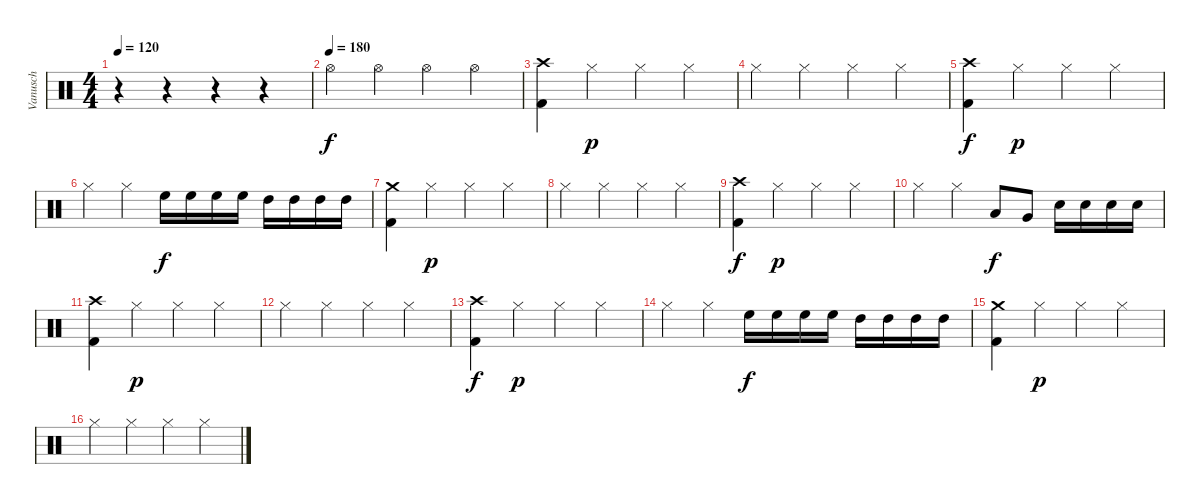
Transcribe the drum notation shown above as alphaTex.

\track ("Vanusch" "Vanusch") {instrument percussion}
\staff {score}
\articulation defaults
\ts (4 4)
\tempo 120
\clef neutral
\ks c
r.4{dy f} r.4 r.4 r.4 |
\tempo (180)
"Hi-Hat (open)".4 "Hi-Hat (open)".4 "Hi-Hat (open)".4 "Hi-Hat (open)".4 |
("Crash high (hit)" "Kick (hit) 2").4 "Hi-Hat (closed)".4{dy p} "Hi-Hat (closed)".4 "Hi-Hat (closed)".4 |
"Hi-Hat (closed)".4 "Hi-Hat (closed)".4 "Hi-Hat (closed)".4 "Hi-Hat (closed)".4 |
("Crash high (hit)" "Kick (hit) 2").4{dy f} "Hi-Hat (closed)".4{dy p} "Hi-Hat (closed)".4 "Hi-Hat (closed)".4 |
"Hi-Hat (closed)".4 "Hi-Hat (closed)".4 "High Floor Tom (hit)".16{dy f} "High Floor Tom (hit)".16 "High Floor Tom (hit)".16 "High Floor Tom (hit)".16 "High Tom (hit)".16 "High Tom (hit)".16 "High Tom (hit)".16 "High Tom (hit)".16 |
("Crash medium (hit)" "Kick (hit) 2").4 "Hi-Hat (closed)".4{dy p} "Hi-Hat (closed)".4 "Hi-Hat (closed)".4 |
"Hi-Hat (closed)".4 "Hi-Hat (closed)".4 "Hi-Hat (closed)".4 "Hi-Hat (closed)".4 |
("Crash high (hit)" "Kick (hit) 2").4{dy f} "Hi-Hat (closed)".4{dy p} "Hi-Hat (closed)".4 "Hi-Hat (closed)".4 |
"Hi-Hat (closed)".4 "Hi-Hat (closed)".4 "Low Tom (hit)".8{dy f} "Very Low Tom (hit)".8 "Snare (hit) 2".16 "Snare (hit) 2".16 "Snare (hit) 2".16 "Snare (hit) 2".16 |
("Crash high (hit)" "Kick (hit) 2").4 "Hi-Hat (closed)".4{dy p} "Hi-Hat (closed)".4 "Hi-Hat (closed)".4 |
"Hi-Hat (closed)".4 "Hi-Hat (closed)".4 "Hi-Hat (closed)".4 "Hi-Hat (closed)".4 |
("Crash high (hit)" "Kick (hit) 2").4{dy f} "Hi-Hat (closed)".4{dy p} "Hi-Hat (closed)".4 "Hi-Hat (closed)".4 |
"Hi-Hat (closed)".4 "Hi-Hat (closed)".4 "High Floor Tom (hit)".16{dy f} "High Floor Tom (hit)".16 "High Floor Tom (hit)".16 "High Floor Tom (hit)".16 "High Tom (hit)".16 "High Tom (hit)".16 "High Tom (hit)".16 "High Tom (hit)".16 |
("Crash medium (hit)" "Kick (hit) 2").4 "Hi-Hat (closed)".4{dy p} "Hi-Hat (closed)".4 "Hi-Hat (closed)".4 |
"Hi-Hat (closed)".4 "Hi-Hat (closed)".4 "Hi-Hat (closed)".4 "Hi-Hat (closed)".4
